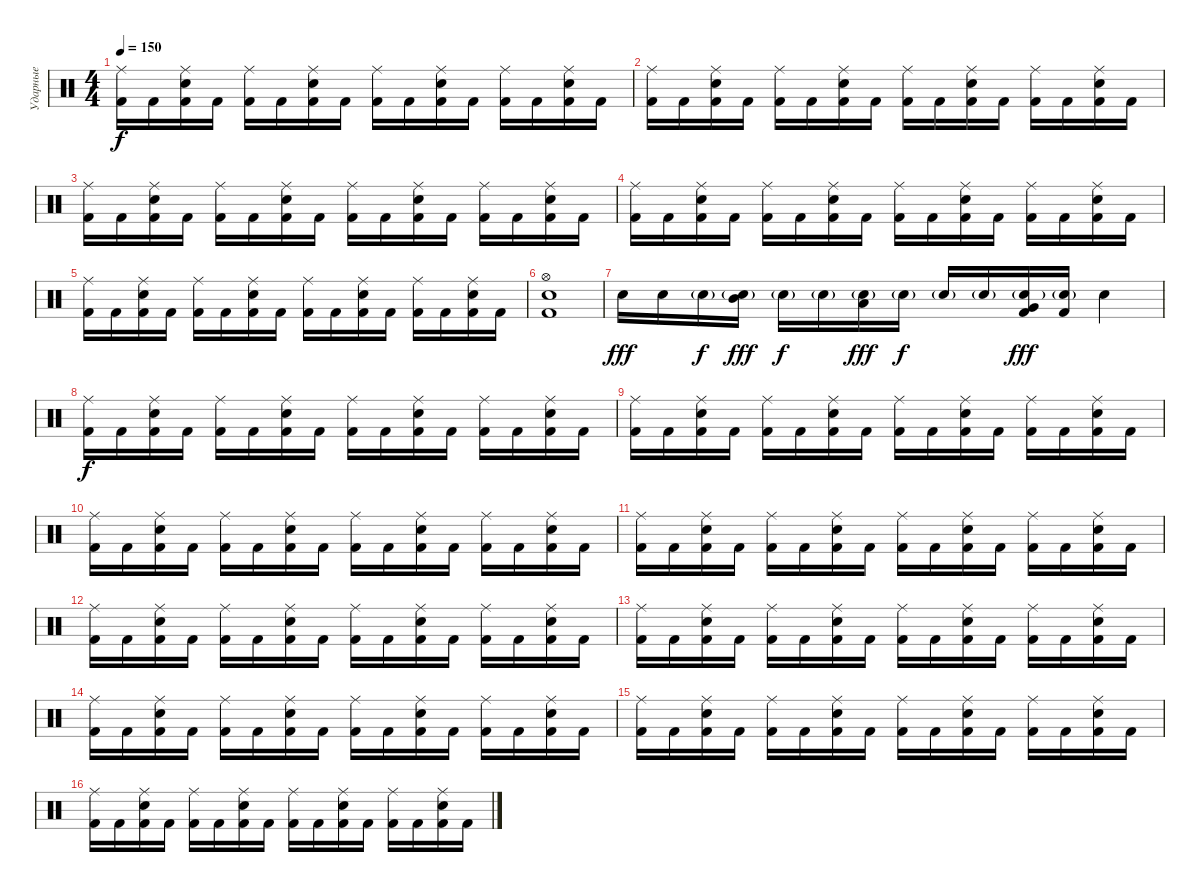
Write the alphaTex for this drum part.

\track ("Ударные" "Ударные") {instrument percussion}
\staff {score}
\articulation defaults
\ts (4 4)
\tempo 150
\clef neutral
\ks c
("Ride (middle)" "Kick (hit) 2").16{dy f} "Kick (hit) 2".16 ("Ride (middle)" "Electric Snare (hit)" "Kick (hit) 2").16 "Kick (hit) 2".16 ("Ride (middle)" "Kick (hit) 2").16 "Kick (hit) 2".16 ("Ride (middle)" "Electric Snare (hit)" "Kick (hit) 2").16 "Kick (hit) 2".16 ("Ride (middle)" "Kick (hit) 2").16 "Kick (hit) 2".16 ("Ride (middle)" "Electric Snare (hit)" "Kick (hit) 2").16 "Kick (hit) 2".16 ("Ride (middle)" "Kick (hit) 2").16 "Kick (hit) 2".16 ("Ride (middle)" "Electric Snare (hit)" "Kick (hit) 2").16 "Kick (hit) 2".16 |
("Ride (middle)" "Kick (hit) 2").16 "Kick (hit) 2".16 ("Ride (middle)" "Electric Snare (hit)" "Kick (hit) 2").16 "Kick (hit) 2".16 ("Ride (middle)" "Kick (hit) 2").16 "Kick (hit) 2".16 ("Ride (middle)" "Electric Snare (hit)" "Kick (hit) 2").16 "Kick (hit) 2".16 ("Ride (middle)" "Kick (hit) 2").16 "Kick (hit) 2".16 ("Ride (middle)" "Electric Snare (hit)" "Kick (hit) 2").16 "Kick (hit) 2".16 ("Ride (middle)" "Kick (hit) 2").16 "Kick (hit) 2".16 ("Ride (middle)" "Electric Snare (hit)" "Kick (hit) 2").16 "Kick (hit) 2".16 |
("Ride (middle)" "Kick (hit) 2").16 "Kick (hit) 2".16 ("Ride (middle)" "Electric Snare (hit)" "Kick (hit) 2").16 "Kick (hit) 2".16 ("Ride (middle)" "Kick (hit) 2").16 "Kick (hit) 2".16 ("Ride (middle)" "Electric Snare (hit)" "Kick (hit) 2").16 "Kick (hit) 2".16 ("Ride (middle)" "Kick (hit) 2").16 "Kick (hit) 2".16 ("Ride (middle)" "Electric Snare (hit)" "Kick (hit) 2").16 "Kick (hit) 2".16 ("Ride (middle)" "Kick (hit) 2").16 "Kick (hit) 2".16 ("Ride (middle)" "Electric Snare (hit)" "Kick (hit) 2").16 "Kick (hit) 2".16 |
("Ride (middle)" "Kick (hit) 2").16 "Kick (hit) 2".16 ("Ride (middle)" "Electric Snare (hit)" "Kick (hit) 2").16 "Kick (hit) 2".16 ("Ride (middle)" "Kick (hit) 2").16 "Kick (hit) 2".16 ("Ride (middle)" "Electric Snare (hit)" "Kick (hit) 2").16 "Kick (hit) 2".16 ("Ride (middle)" "Kick (hit) 2").16 "Kick (hit) 2".16 ("Ride (middle)" "Electric Snare (hit)" "Kick (hit) 2").16 "Kick (hit) 2".16 ("Ride (middle)" "Kick (hit) 2").16 "Kick (hit) 2".16 ("Ride (middle)" "Electric Snare (hit)" "Kick (hit) 2").16 "Kick (hit) 2".16 |
("Ride (middle)" "Kick (hit) 2").16 "Kick (hit) 2".16 ("Ride (middle)" "Electric Snare (hit)" "Kick (hit) 2").16 "Kick (hit) 2".16 ("Ride (middle)" "Kick (hit) 2").16 "Kick (hit) 2".16 ("Ride (middle)" "Electric Snare (hit)" "Kick (hit) 2").16 "Kick (hit) 2".16 ("Ride (middle)" "Kick (hit) 2").16 "Kick (hit) 2".16 ("Ride (middle)" "Electric Snare (hit)" "Kick (hit) 2").16 "Kick (hit) 2".16 ("Ride (middle)" "Kick (hit) 2").16 "Kick (hit) 2".16 ("Ride (middle)" "Electric Snare (hit)" "Kick (hit) 2").16 "Kick (hit) 2".16 |
("Hi-Hat (open)" "Electric Snare (hit)" "Kick (hit) 2").1 |
"Electric Snare (hit)".16{dy fff} "Electric Snare (hit)".16 "Electric Snare (hit)"{g}.16{dy f} ("Mid Tom (hit)" "Electric Snare (hit)"{g}).16{dy fff} "Electric Snare (hit)"{g}.16{dy f} "Electric Snare (hit)"{g}.16 ("Low Tom (hit)" "Electric Snare (hit)"{g}).16{dy fff} "Electric Snare (hit)"{g}.16{dy f} "Electric Snare (hit)"{g}.16 "Electric Snare (hit)"{g}.16 ("Electric Snare (hit)"{g} "Very Low Tom (hit)" "Kick (hit) 2").16{dy fff} ("Electric Snare (hit)"{g} "Kick (hit) 2").16 "Electric Snare (hit)".4 |
("Ride (middle)" "Kick (hit) 2").16{dy f} "Kick (hit) 2".16 ("Ride (middle)" "Electric Snare (hit)" "Kick (hit) 2").16 "Kick (hit) 2".16 ("Ride (middle)" "Kick (hit) 2").16 "Kick (hit) 2".16 ("Ride (middle)" "Electric Snare (hit)" "Kick (hit) 2").16 "Kick (hit) 2".16 ("Ride (middle)" "Kick (hit) 2").16 "Kick (hit) 2".16 ("Ride (middle)" "Electric Snare (hit)" "Kick (hit) 2").16 "Kick (hit) 2".16 ("Ride (middle)" "Kick (hit) 2").16 "Kick (hit) 2".16 ("Ride (middle)" "Electric Snare (hit)" "Kick (hit) 2").16 "Kick (hit) 2".16 |
("Ride (middle)" "Kick (hit) 2").16 "Kick (hit) 2".16 ("Ride (middle)" "Electric Snare (hit)" "Kick (hit) 2").16 "Kick (hit) 2".16 ("Ride (middle)" "Kick (hit) 2").16 "Kick (hit) 2".16 ("Ride (middle)" "Electric Snare (hit)" "Kick (hit) 2").16 "Kick (hit) 2".16 ("Ride (middle)" "Kick (hit) 2").16 "Kick (hit) 2".16 ("Ride (middle)" "Electric Snare (hit)" "Kick (hit) 2").16 "Kick (hit) 2".16 ("Ride (middle)" "Kick (hit) 2").16 "Kick (hit) 2".16 ("Ride (middle)" "Electric Snare (hit)" "Kick (hit) 2").16 "Kick (hit) 2".16 |
("Ride (middle)" "Kick (hit) 2").16 "Kick (hit) 2".16 ("Ride (middle)" "Electric Snare (hit)" "Kick (hit) 2").16 "Kick (hit) 2".16 ("Ride (middle)" "Kick (hit) 2").16 "Kick (hit) 2".16 ("Ride (middle)" "Electric Snare (hit)" "Kick (hit) 2").16 "Kick (hit) 2".16 ("Ride (middle)" "Kick (hit) 2").16 "Kick (hit) 2".16 ("Ride (middle)" "Electric Snare (hit)" "Kick (hit) 2").16 "Kick (hit) 2".16 ("Ride (middle)" "Kick (hit) 2").16 "Kick (hit) 2".16 ("Ride (middle)" "Electric Snare (hit)" "Kick (hit) 2").16 "Kick (hit) 2".16 |
("Ride (middle)" "Kick (hit) 2").16 "Kick (hit) 2".16 ("Ride (middle)" "Electric Snare (hit)" "Kick (hit) 2").16 "Kick (hit) 2".16 ("Ride (middle)" "Kick (hit) 2").16 "Kick (hit) 2".16 ("Ride (middle)" "Electric Snare (hit)" "Kick (hit) 2").16 "Kick (hit) 2".16 ("Ride (middle)" "Kick (hit) 2").16 "Kick (hit) 2".16 ("Ride (middle)" "Electric Snare (hit)" "Kick (hit) 2").16 "Kick (hit) 2".16 ("Ride (middle)" "Kick (hit) 2").16 "Kick (hit) 2".16 ("Ride (middle)" "Electric Snare (hit)" "Kick (hit) 2").16 "Kick (hit) 2".16 |
("Ride (middle)" "Kick (hit) 2").16 "Kick (hit) 2".16 ("Ride (middle)" "Electric Snare (hit)" "Kick (hit) 2").16 "Kick (hit) 2".16 ("Ride (middle)" "Kick (hit) 2").16 "Kick (hit) 2".16 ("Ride (middle)" "Electric Snare (hit)" "Kick (hit) 2").16 "Kick (hit) 2".16 ("Ride (middle)" "Kick (hit) 2").16 "Kick (hit) 2".16 ("Ride (middle)" "Electric Snare (hit)" "Kick (hit) 2").16 "Kick (hit) 2".16 ("Ride (middle)" "Kick (hit) 2").16 "Kick (hit) 2".16 ("Ride (middle)" "Electric Snare (hit)" "Kick (hit) 2").16 "Kick (hit) 2".16 |
("Ride (middle)" "Kick (hit) 2").16 "Kick (hit) 2".16 ("Ride (middle)" "Electric Snare (hit)" "Kick (hit) 2").16 "Kick (hit) 2".16 ("Ride (middle)" "Kick (hit) 2").16 "Kick (hit) 2".16 ("Ride (middle)" "Electric Snare (hit)" "Kick (hit) 2").16 "Kick (hit) 2".16 ("Ride (middle)" "Kick (hit) 2").16 "Kick (hit) 2".16 ("Ride (middle)" "Electric Snare (hit)" "Kick (hit) 2").16 "Kick (hit) 2".16 ("Ride (middle)" "Kick (hit) 2").16 "Kick (hit) 2".16 ("Ride (middle)" "Electric Snare (hit)" "Kick (hit) 2").16 "Kick (hit) 2".16 |
("Ride (middle)" "Kick (hit) 2").16 "Kick (hit) 2".16 ("Ride (middle)" "Electric Snare (hit)" "Kick (hit) 2").16 "Kick (hit) 2".16 ("Ride (middle)" "Kick (hit) 2").16 "Kick (hit) 2".16 ("Ride (middle)" "Electric Snare (hit)" "Kick (hit) 2").16 "Kick (hit) 2".16 ("Ride (middle)" "Kick (hit) 2").16 "Kick (hit) 2".16 ("Ride (middle)" "Electric Snare (hit)" "Kick (hit) 2").16 "Kick (hit) 2".16 ("Ride (middle)" "Kick (hit) 2").16 "Kick (hit) 2".16 ("Ride (middle)" "Electric Snare (hit)" "Kick (hit) 2").16 "Kick (hit) 2".16 |
("Ride (middle)" "Kick (hit) 2").16 "Kick (hit) 2".16 ("Ride (middle)" "Electric Snare (hit)" "Kick (hit) 2").16 "Kick (hit) 2".16 ("Ride (middle)" "Kick (hit) 2").16 "Kick (hit) 2".16 ("Ride (middle)" "Electric Snare (hit)" "Kick (hit) 2").16 "Kick (hit) 2".16 ("Ride (middle)" "Kick (hit) 2").16 "Kick (hit) 2".16 ("Ride (middle)" "Electric Snare (hit)" "Kick (hit) 2").16 "Kick (hit) 2".16 ("Ride (middle)" "Kick (hit) 2").16 "Kick (hit) 2".16 ("Ride (middle)" "Electric Snare (hit)" "Kick (hit) 2").16 "Kick (hit) 2".16 |
("Ride (middle)" "Kick (hit) 2").16 "Kick (hit) 2".16 ("Ride (middle)" "Electric Snare (hit)" "Kick (hit) 2").16 "Kick (hit) 2".16 ("Ride (middle)" "Kick (hit) 2").16 "Kick (hit) 2".16 ("Ride (middle)" "Electric Snare (hit)" "Kick (hit) 2").16 "Kick (hit) 2".16 ("Ride (middle)" "Kick (hit) 2").16 "Kick (hit) 2".16 ("Ride (middle)" "Electric Snare (hit)" "Kick (hit) 2").16 "Kick (hit) 2".16 ("Ride (middle)" "Kick (hit) 2").16 "Kick (hit) 2".16 ("Ride (middle)" "Electric Snare (hit)" "Kick (hit) 2").16 "Kick (hit) 2".16
